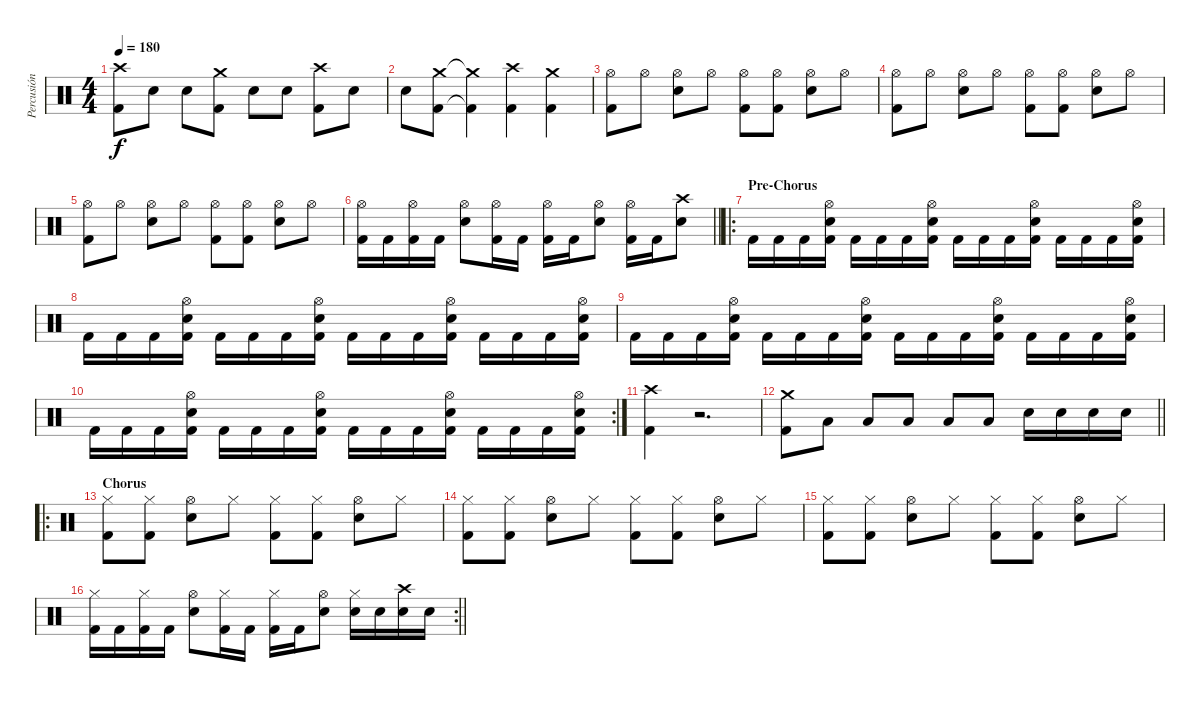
\track ("Percusión" "Percusión") {instrument percussion}
\staff {score}
\articulation defaults
\ts (4 4)
\tempo 180
\clef neutral
\ks c
("Crash high (hit)" "Kick (hit) 2").8{dy f} "Snare (hit) 2".8 "Snare (hit) 2".8 ("Crash medium (hit)" "Kick (hit) 2").8 "Snare (hit) 2".8 "Snare (hit) 2".8 ("Crash high (hit)" "Kick (hit) 2").8 "Snare (hit) 2".8 |
"Snare (hit) 2".8 ("Crash medium (hit)" "Kick (hit) 2").8 ("Crash medium (hit)"{t} "Kick (hit) 2"{t}).4 ("Crash high (hit)" "Kick (hit) 2").4 ("Crash medium (hit)" "Kick (hit) 2").4 |
("Hi-Hat (open)" "Kick (hit) 2").8 "Hi-Hat (open)".8 ("Hi-Hat (open)" "Snare (hit) 2").8 "Hi-Hat (open)".8 ("Hi-Hat (open)" "Kick (hit) 2").8 ("Hi-Hat (open)" "Kick (hit) 2").8 ("Hi-Hat (open)" "Snare (hit) 2").8 "Hi-Hat (open)".8 |
("Hi-Hat (open)" "Kick (hit) 2").8 "Hi-Hat (open)".8 ("Hi-Hat (open)" "Snare (hit) 2").8 "Hi-Hat (open)".8 ("Hi-Hat (open)" "Kick (hit) 2").8 ("Hi-Hat (open)" "Kick (hit) 2").8 ("Hi-Hat (open)" "Snare (hit) 2").8 "Hi-Hat (open)".8 |
("Hi-Hat (open)" "Kick (hit) 2").8 "Hi-Hat (open)".8 ("Hi-Hat (open)" "Snare (hit) 2").8 "Hi-Hat (open)".8 ("Hi-Hat (open)" "Kick (hit) 2").8 ("Hi-Hat (open)" "Kick (hit) 2").8 ("Hi-Hat (open)" "Snare (hit) 2").8 "Hi-Hat (open)".8 |
\barLineRight lightlight
("Hi-Hat (open)" "Kick (hit) 2").16 "Kick (hit) 2".16 ("Hi-Hat (open)" "Kick (hit) 2").16 "Kick (hit) 2".16 ("Hi-Hat (open)" "Snare (hit) 2").8 ("Hi-Hat (open)" "Kick (hit) 2").16 "Kick (hit) 2".16 ("Hi-Hat (open)" "Kick (hit) 2").16 "Kick (hit) 2".16 ("Hi-Hat (open)" "Snare (hit) 2").8 ("Hi-Hat (open)" "Kick (hit) 2").16 "Kick (hit) 2".16 ("Crash high (hit)" "Snare (hit) 2").8 |
\ro
\section ("" "Pre-Chorus")
"Kick (hit) 2".16 "Kick (hit) 2".16 "Kick (hit) 2".16 ("Hi-Hat (open)" "Snare (hit) 2" "Kick (hit) 2").16 "Kick (hit) 2".16 "Kick (hit) 2".16 "Kick (hit) 2".16 ("Hi-Hat (open)" "Snare (hit) 2" "Kick (hit) 2").16 "Kick (hit) 2".16 "Kick (hit) 2".16 "Kick (hit) 2".16 ("Hi-Hat (open)" "Snare (hit) 2" "Kick (hit) 2").16 "Kick (hit) 2".16 "Kick (hit) 2".16 "Kick (hit) 2".16 ("Hi-Hat (open)" "Snare (hit) 2" "Kick (hit) 2").16 |
"Kick (hit) 2".16 "Kick (hit) 2".16 "Kick (hit) 2".16 ("Hi-Hat (open)" "Snare (hit) 2" "Kick (hit) 2").16 "Kick (hit) 2".16 "Kick (hit) 2".16 "Kick (hit) 2".16 ("Hi-Hat (open)" "Snare (hit) 2" "Kick (hit) 2").16 "Kick (hit) 2".16 "Kick (hit) 2".16 "Kick (hit) 2".16 ("Hi-Hat (open)" "Snare (hit) 2" "Kick (hit) 2").16 "Kick (hit) 2".16 "Kick (hit) 2".16 "Kick (hit) 2".16 ("Hi-Hat (open)" "Snare (hit) 2" "Kick (hit) 2").16 |
"Kick (hit) 2".16 "Kick (hit) 2".16 "Kick (hit) 2".16 ("Hi-Hat (open)" "Snare (hit) 2" "Kick (hit) 2").16 "Kick (hit) 2".16 "Kick (hit) 2".16 "Kick (hit) 2".16 ("Hi-Hat (open)" "Snare (hit) 2" "Kick (hit) 2").16 "Kick (hit) 2".16 "Kick (hit) 2".16 "Kick (hit) 2".16 ("Hi-Hat (open)" "Snare (hit) 2" "Kick (hit) 2").16 "Kick (hit) 2".16 "Kick (hit) 2".16 "Kick (hit) 2".16 ("Hi-Hat (open)" "Snare (hit) 2" "Kick (hit) 2").16 |
\rc 2 "Kick (hit) 2".16 "Kick (hit) 2".16 "Kick (hit) 2".16
("Hi-Hat (open)" "Snare (hit) 2" "Kick (hit) 2").16 "Kick (hit) 2".16 "Kick (hit) 2".16 "Kick (hit) 2".16 ("Hi-Hat (open)" "Snare (hit) 2" "Kick (hit) 2").16 "Kick (hit) 2".16 "Kick (hit) 2".16 "Kick (hit) 2".16 ("Hi-Hat (open)" "Snare (hit) 2" "Kick (hit) 2").16 "Kick (hit) 2".16 "Kick (hit) 2".16 "Kick (hit) 2".16 ("Hi-Hat (open)" "Snare (hit) 2" "Kick (hit) 2").16 |
("Crash high (hit)" "Kick (hit) 2").4 r.2{d} |
\barLineRight lightlight
("Crash medium (hit)" "Kick (hit) 2").8 "Low Tom (hit)".8 "Low Tom (hit)".8 "Low Tom (hit)".8 "Low Tom (hit)".8 "Low Tom (hit)".8 "Snare (hit) 2".16 "Snare (hit) 2".16 "Snare (hit) 2".16 "Snare (hit) 2".16 |
\ro
\section ("" "Chorus")
("Hi-Hat (closed)" "Kick (hit) 2").8 ("Hi-Hat (closed)" "Kick (hit) 2").8 ("Hi-Hat (open)" "Snare (hit) 2").8 "Hi-Hat (closed)".8 ("Hi-Hat (closed)" "Kick (hit) 2").8 ("Hi-Hat (closed)" "Kick (hit) 2").8 ("Hi-Hat (open)" "Snare (hit) 2").8 "Hi-Hat (closed)".8 |
("Hi-Hat (closed)" "Kick (hit) 2").8 ("Hi-Hat (closed)" "Kick (hit) 2").8 ("Hi-Hat (open)" "Snare (hit) 2").8 "Hi-Hat (closed)".8 ("Hi-Hat (closed)" "Kick (hit) 2").8 ("Hi-Hat (closed)" "Kick (hit) 2").8 ("Hi-Hat (open)" "Snare (hit) 2").8 "Hi-Hat (closed)".8 |
("Hi-Hat (closed)" "Kick (hit) 2").8 ("Hi-Hat (closed)" "Kick (hit) 2").8 ("Hi-Hat (open)" "Snare (hit) 2").8 "Hi-Hat (closed)".8 ("Hi-Hat (closed)" "Kick (hit) 2").8 ("Hi-Hat (closed)" "Kick (hit) 2").8 ("Hi-Hat (open)" "Snare (hit) 2").8 "Hi-Hat (closed)".8 |
\rc 2
\barLineRight lightlight
("Hi-Hat (closed)" "Kick (hit) 2").16 "Kick (hit) 2".16 ("Hi-Hat (closed)" "Kick (hit) 2").16 "Kick (hit) 2".16 ("Hi-Hat (open)" "Snare (hit) 2").8 ("Hi-Hat (closed)" "Kick (hit) 2").16 "Kick (hit) 2".16 ("Hi-Hat (closed)" "Kick (hit) 2").16 "Kick (hit) 2".16 ("Hi-Hat (open)" "Snare (hit) 2").8 ("Hi-Hat (closed)" "Snare (hit) 2").16 "Snare (hit) 2".16 ("Crash high (hit)" "Snare (hit) 2").16 "Snare (hit) 2".16
